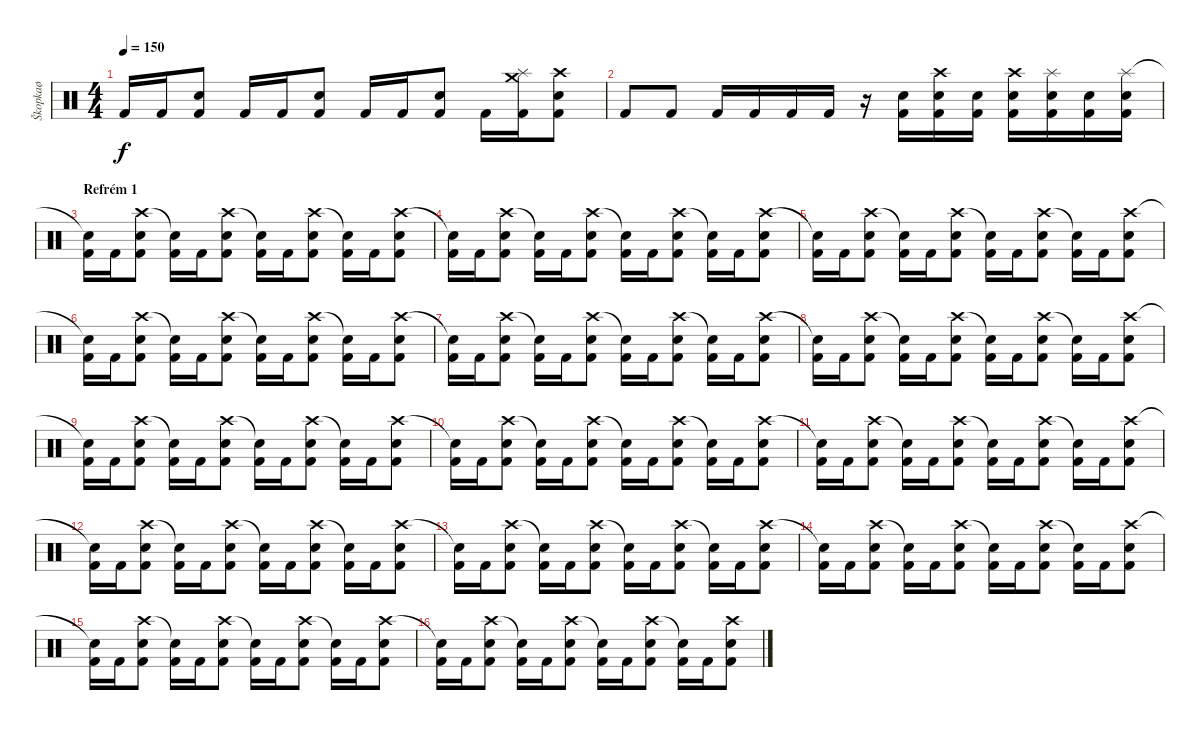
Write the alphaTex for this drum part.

\track ("Škopkaø" "Škopkaø") {instrument percussion}
\staff {score}
\articulation defaults
\ts (4 4)
\tempo 150
\clef neutral
\ks c "Kick (hit) 2".16{dy f} "Kick (hit) 2".16
("Electric Snare (hit)" "Kick (hit) 2").8 "Kick (hit) 2".16 "Kick (hit) 2".16 ("Electric Snare (hit)" "Kick (hit) 2").8 "Kick (hit) 2".16 "Kick (hit) 2".16 ("Electric Snare (hit)" "Kick (hit) 2").8 "Kick (hit) 2".16 ("Crash medium (hit)" "Splash (hit)" "Kick (hit) 2").16 ("Crash high (hit)" "Electric Snare (hit)" "Kick (hit) 2").8 |
"Kick (hit) 2".8 "Kick (hit) 2".8 "Kick (hit) 2".16 "Kick (hit) 2".16 "Kick (hit) 2".16 "Kick (hit) 2".16 r.16 ("Electric Snare (hit)" "Kick (hit) 2").16 ("Crash high (hit)" "Electric Snare (hit)" "Kick (hit) 2").16 ("Electric Snare (hit)" "Kick (hit) 2").16 ("Crash high (hit)" "Electric Snare (hit)" "Kick (hit) 2").16 ("Splash (hit)" "Electric Snare (hit)" "Kick (hit) 2").16 ("Electric Snare (hit)" "Kick (hit) 2").16 ("Splash (hit)" "Electric Snare (hit)" "Kick (hit) 2").16 |
\section ("" "Refrém 1")
("Snare (hit)"{t} "Kick (hit) 2").16 "Kick (hit) 2".16 ("Crash high (hit)" "Electric Snare (hit)" "Kick (hit) 2").8 ("Snare (hit)"{t} "Kick (hit) 2").16 "Kick (hit) 2".16 ("Crash high (hit)" "Electric Snare (hit)" "Kick (hit) 2").8 ("Snare (hit)"{t} "Kick (hit) 2").16 "Kick (hit) 2".16 ("Crash high (hit)" "Electric Snare (hit)" "Kick (hit) 2").8 ("Snare (hit)"{t} "Kick (hit) 2").16 "Kick (hit) 2".16 ("Crash high (hit)" "Electric Snare (hit)" "Kick (hit) 2").8 |
("Snare (hit)"{t} "Kick (hit) 2").16 "Kick (hit) 2".16 ("Crash high (hit)" "Electric Snare (hit)" "Kick (hit) 2").8 ("Snare (hit)"{t} "Kick (hit) 2").16 "Kick (hit) 2".16 ("Crash high (hit)" "Electric Snare (hit)" "Kick (hit) 2").8 ("Snare (hit)"{t} "Kick (hit) 2").16 "Kick (hit) 2".16 ("Crash high (hit)" "Electric Snare (hit)" "Kick (hit) 2").8 ("Snare (hit)"{t} "Kick (hit) 2").16 "Kick (hit) 2".16 ("Crash high (hit)" "Electric Snare (hit)" "Kick (hit) 2").8 |
("Snare (hit)"{t} "Kick (hit) 2").16 "Kick (hit) 2".16 ("Crash high (hit)" "Electric Snare (hit)" "Kick (hit) 2").8 ("Snare (hit)"{t} "Kick (hit) 2").16 "Kick (hit) 2".16 ("Crash high (hit)" "Electric Snare (hit)" "Kick (hit) 2").8 ("Snare (hit)"{t} "Kick (hit) 2").16 "Kick (hit) 2".16 ("Crash high (hit)" "Electric Snare (hit)" "Kick (hit) 2").8 ("Snare (hit)"{t} "Kick (hit) 2").16 "Kick (hit) 2".16 ("Crash high (hit)" "Electric Snare (hit)" "Kick (hit) 2").8 |
("Snare (hit)"{t} "Kick (hit) 2").16 "Kick (hit) 2".16 ("Crash high (hit)" "Electric Snare (hit)" "Kick (hit) 2").8 ("Snare (hit)"{t} "Kick (hit) 2").16 "Kick (hit) 2".16 ("Crash high (hit)" "Electric Snare (hit)" "Kick (hit) 2").8 ("Snare (hit)"{t} "Kick (hit) 2").16 "Kick (hit) 2".16 ("Crash high (hit)" "Electric Snare (hit)" "Kick (hit) 2").8 ("Snare (hit)"{t} "Kick (hit) 2").16 "Kick (hit) 2".16 ("Crash high (hit)" "Electric Snare (hit)" "Kick (hit) 2").8 |
("Snare (hit)"{t} "Kick (hit) 2").16 "Kick (hit) 2".16 ("Crash high (hit)" "Electric Snare (hit)" "Kick (hit) 2").8 ("Snare (hit)"{t} "Kick (hit) 2").16 "Kick (hit) 2".16 ("Crash high (hit)" "Electric Snare (hit)" "Kick (hit) 2").8 ("Snare (hit)"{t} "Kick (hit) 2").16 "Kick (hit) 2".16 ("Crash high (hit)" "Electric Snare (hit)" "Kick (hit) 2").8 ("Snare (hit)"{t} "Kick (hit) 2").16 "Kick (hit) 2".16 ("Crash high (hit)" "Electric Snare (hit)" "Kick (hit) 2").8 |
("Snare (hit)"{t} "Kick (hit) 2").16 "Kick (hit) 2".16 ("Crash high (hit)" "Electric Snare (hit)" "Kick (hit) 2").8 ("Snare (hit)"{t} "Kick (hit) 2").16 "Kick (hit) 2".16 ("Crash high (hit)" "Electric Snare (hit)" "Kick (hit) 2").8 ("Snare (hit)"{t} "Kick (hit) 2").16 "Kick (hit) 2".16 ("Crash high (hit)" "Electric Snare (hit)" "Kick (hit) 2").8 ("Snare (hit)"{t} "Kick (hit) 2").16 "Kick (hit) 2".16 ("Crash high (hit)" "Electric Snare (hit)" "Kick (hit) 2").8 |
("Snare (hit)"{t} "Kick (hit) 2").16 "Kick (hit) 2".16 ("Crash high (hit)" "Electric Snare (hit)" "Kick (hit) 2").8 ("Snare (hit)"{t} "Kick (hit) 2").16 "Kick (hit) 2".16 ("Crash high (hit)" "Electric Snare (hit)" "Kick (hit) 2").8 ("Snare (hit)"{t} "Kick (hit) 2").16 "Kick (hit) 2".16 ("Crash high (hit)" "Electric Snare (hit)" "Kick (hit) 2").8 ("Snare (hit)"{t} "Kick (hit) 2").16 "Kick (hit) 2".16 ("Crash high (hit)" "Electric Snare (hit)" "Kick (hit) 2").8 |
("Snare (hit)"{t} "Kick (hit) 2").16 "Kick (hit) 2".16 ("Crash high (hit)" "Electric Snare (hit)" "Kick (hit) 2").8 ("Snare (hit)"{t} "Kick (hit) 2").16 "Kick (hit) 2".16 ("Crash high (hit)" "Electric Snare (hit)" "Kick (hit) 2").8 ("Snare (hit)"{t} "Kick (hit) 2").16 "Kick (hit) 2".16 ("Crash high (hit)" "Electric Snare (hit)" "Kick (hit) 2").8 ("Snare (hit)"{t} "Kick (hit) 2").16 "Kick (hit) 2".16 ("Crash high (hit)" "Electric Snare (hit)" "Kick (hit) 2").8 |
("Snare (hit)"{t} "Kick (hit) 2").16 "Kick (hit) 2".16 ("Crash high (hit)" "Electric Snare (hit)" "Kick (hit) 2").8 ("Snare (hit)"{t} "Kick (hit) 2").16 "Kick (hit) 2".16 ("Crash high (hit)" "Electric Snare (hit)" "Kick (hit) 2").8 ("Snare (hit)"{t} "Kick (hit) 2").16 "Kick (hit) 2".16 ("Crash high (hit)" "Electric Snare (hit)" "Kick (hit) 2").8 ("Snare (hit)"{t} "Kick (hit) 2").16 "Kick (hit) 2".16 ("Crash high (hit)" "Electric Snare (hit)" "Kick (hit) 2").8 |
("Snare (hit)"{t} "Kick (hit) 2").16 "Kick (hit) 2".16 ("Crash high (hit)" "Electric Snare (hit)" "Kick (hit) 2").8 ("Snare (hit)"{t} "Kick (hit) 2").16 "Kick (hit) 2".16 ("Crash high (hit)" "Electric Snare (hit)" "Kick (hit) 2").8 ("Snare (hit)"{t} "Kick (hit) 2").16 "Kick (hit) 2".16 ("Crash high (hit)" "Electric Snare (hit)" "Kick (hit) 2").8 ("Snare (hit)"{t} "Kick (hit) 2").16 "Kick (hit) 2".16 ("Crash high (hit)" "Electric Snare (hit)" "Kick (hit) 2").8 |
("Snare (hit)"{t} "Kick (hit) 2").16 "Kick (hit) 2".16 ("Crash high (hit)" "Electric Snare (hit)" "Kick (hit) 2").8 ("Snare (hit)"{t} "Kick (hit) 2").16 "Kick (hit) 2".16 ("Crash high (hit)" "Electric Snare (hit)" "Kick (hit) 2").8 ("Snare (hit)"{t} "Kick (hit) 2").16 "Kick (hit) 2".16 ("Crash high (hit)" "Electric Snare (hit)" "Kick (hit) 2").8 ("Snare (hit)"{t} "Kick (hit) 2").16 "Kick (hit) 2".16 ("Crash high (hit)" "Electric Snare (hit)" "Kick (hit) 2").8 |
("Snare (hit)"{t} "Kick (hit) 2").16 "Kick (hit) 2".16 ("Crash high (hit)" "Electric Snare (hit)" "Kick (hit) 2").8 ("Snare (hit)"{t} "Kick (hit) 2").16 "Kick (hit) 2".16 ("Crash high (hit)" "Electric Snare (hit)" "Kick (hit) 2").8 ("Snare (hit)"{t} "Kick (hit) 2").16 "Kick (hit) 2".16 ("Crash high (hit)" "Electric Snare (hit)" "Kick (hit) 2").8 ("Snare (hit)"{t} "Kick (hit) 2").16 "Kick (hit) 2".16 ("Crash high (hit)" "Electric Snare (hit)" "Kick (hit) 2").8 |
("Snare (hit)"{t} "Kick (hit) 2").16 "Kick (hit) 2".16 ("Crash high (hit)" "Electric Snare (hit)" "Kick (hit) 2").8 ("Snare (hit)"{t} "Kick (hit) 2").16 "Kick (hit) 2".16 ("Crash high (hit)" "Electric Snare (hit)" "Kick (hit) 2").8 ("Snare (hit)"{t} "Kick (hit) 2").16 "Kick (hit) 2".16 ("Crash high (hit)" "Electric Snare (hit)" "Kick (hit) 2").8 ("Snare (hit)"{t} "Kick (hit) 2").16 "Kick (hit) 2".16 ("Crash high (hit)" "Electric Snare (hit)" "Kick (hit) 2").8 |
("Snare (hit)"{t} "Kick (hit) 2").16 "Kick (hit) 2".16 ("Crash high (hit)" "Electric Snare (hit)" "Kick (hit) 2").8 ("Snare (hit)"{t} "Kick (hit) 2").16 "Kick (hit) 2".16 ("Crash high (hit)" "Electric Snare (hit)" "Kick (hit) 2").8 ("Snare (hit)"{t} "Kick (hit) 2").16 "Kick (hit) 2".16 ("Crash high (hit)" "Electric Snare (hit)" "Kick (hit) 2").8 ("Snare (hit)"{t} "Kick (hit) 2").16 "Kick (hit) 2".16 ("Crash high (hit)" "Electric Snare (hit)" "Kick (hit) 2").8
